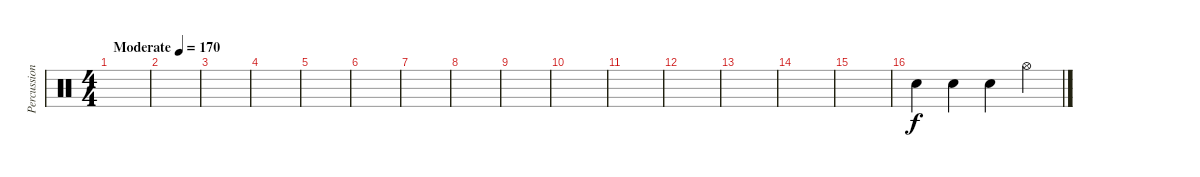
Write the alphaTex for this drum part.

\track ("Percussion" "Percussion") {instrument percussion}
\staff {score}
\articulation defaults
\ts (4 4)
\tempo (170 "Moderate")
\clef neutral
\ks c
|
|
|
|
|
|
|
|
|
|
|
|
|
|
|
"Snare (hit)".4 "Snare (hit)".4 "Snare (hit)".4 "Hi-Hat (open)".4
